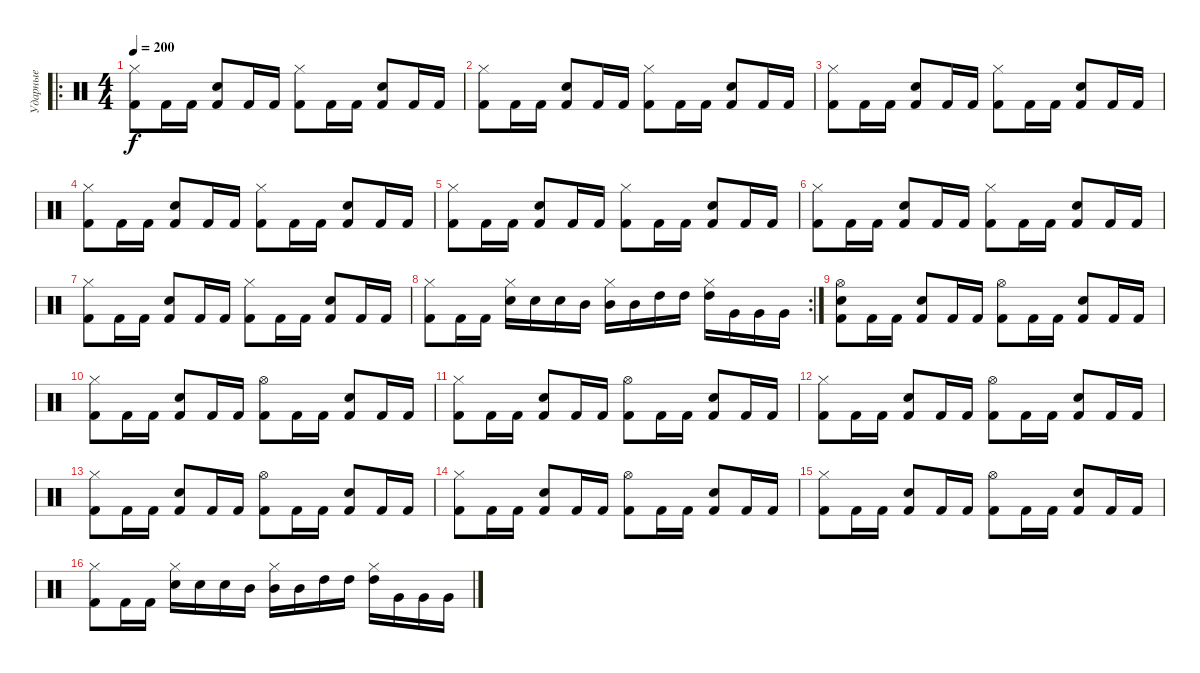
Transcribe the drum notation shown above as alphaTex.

\track ("Ударные" "Ударные") {instrument percussion}
\staff {score}
\articulation defaults
\ro
\ts (4 4)
\tempo 200
\clef neutral
\ks c
("Kick (hit) 2" "Hi-Hat (closed)").8{dy f} "Kick (hit) 2".16 "Kick (hit) 2".16 ("Kick (hit) 2" "Snare (hit) 2").8 "Kick (hit) 2".16 "Kick (hit) 2".16 ("Kick (hit) 2" "Hi-Hat (closed)").8 "Kick (hit) 2".16 "Kick (hit) 2".16 ("Kick (hit) 2" "Snare (hit) 2").8 "Kick (hit) 2".16 "Kick (hit) 2".16 |
("Kick (hit) 2" "Hi-Hat (closed)").8 "Kick (hit) 2".16 "Kick (hit) 2".16 ("Kick (hit) 2" "Snare (hit) 2").8 "Kick (hit) 2".16 "Kick (hit) 2".16 ("Kick (hit) 2" "Hi-Hat (closed)").8 "Kick (hit) 2".16 "Kick (hit) 2".16 ("Kick (hit) 2" "Snare (hit) 2").8 "Kick (hit) 2".16 "Kick (hit) 2".16 |
("Kick (hit) 2" "Hi-Hat (closed)").8 "Kick (hit) 2".16 "Kick (hit) 2".16 ("Kick (hit) 2" "Snare (hit) 2").8 "Kick (hit) 2".16 "Kick (hit) 2".16 ("Kick (hit) 2" "Hi-Hat (closed)").8 "Kick (hit) 2".16 "Kick (hit) 2".16 ("Kick (hit) 2" "Snare (hit) 2").8 "Kick (hit) 2".16 "Kick (hit) 2".16 |
("Kick (hit) 2" "Hi-Hat (closed)").8 "Kick (hit) 2".16 "Kick (hit) 2".16 ("Kick (hit) 2" "Snare (hit) 2").8 "Kick (hit) 2".16 "Kick (hit) 2".16 ("Kick (hit) 2" "Hi-Hat (closed)").8 "Kick (hit) 2".16 "Kick (hit) 2".16 ("Kick (hit) 2" "Snare (hit) 2").8 "Kick (hit) 2".16 "Kick (hit) 2".16 |
("Kick (hit) 2" "Hi-Hat (closed)").8 "Kick (hit) 2".16 "Kick (hit) 2".16 ("Kick (hit) 2" "Snare (hit) 2").8 "Kick (hit) 2".16 "Kick (hit) 2".16 ("Kick (hit) 2" "Hi-Hat (closed)").8 "Kick (hit) 2".16 "Kick (hit) 2".16 ("Kick (hit) 2" "Snare (hit) 2").8 "Kick (hit) 2".16 "Kick (hit) 2".16 |
("Kick (hit) 2" "Hi-Hat (closed)").8 "Kick (hit) 2".16 "Kick (hit) 2".16 ("Kick (hit) 2" "Snare (hit) 2").8 "Kick (hit) 2".16 "Kick (hit) 2".16 ("Kick (hit) 2" "Hi-Hat (closed)").8 "Kick (hit) 2".16 "Kick (hit) 2".16 ("Kick (hit) 2" "Snare (hit) 2").8 "Kick (hit) 2".16 "Kick (hit) 2".16 |
("Kick (hit) 2" "Hi-Hat (closed)").8 "Kick (hit) 2".16 "Kick (hit) 2".16 ("Kick (hit) 2" "Snare (hit) 2").8 "Kick (hit) 2".16 "Kick (hit) 2".16 ("Kick (hit) 2" "Hi-Hat (closed)").8 "Kick (hit) 2".16 "Kick (hit) 2".16 ("Kick (hit) 2" "Snare (hit) 2").8 "Kick (hit) 2".16 "Kick (hit) 2".16 |
\rc 2
("Kick (hit) 2" "Hi-Hat (closed)").8 "Kick (hit) 2".16 "Kick (hit) 2".16 ("Electric Snare (hit)" "Hi-Hat (closed)").16 "Electric Snare (hit)".16 "Electric Snare (hit)".16 "Mid Tom (hit)".16 ("Mid Tom (hit)" "Hi-Hat (closed)").16 "Mid Tom (hit)".16 "High Tom (hit)".16 "High Tom (hit)".16 ("High Tom (hit)" "Hi-Hat (closed)").16 "Very Low Tom (hit)".16 "Very Low Tom (hit)".16 "Very Low Tom (hit)".16 |
("Kick (hit) 2" "Hi-Hat (open)" "Snare (hit) 2").8 "Kick (hit) 2".16 "Kick (hit) 2".16 ("Kick (hit) 2" "Snare (hit) 2").8 "Kick (hit) 2".16 "Kick (hit) 2".16 ("Kick (hit) 2" "Hi-Hat (open)").8 "Kick (hit) 2".16 "Kick (hit) 2".16 ("Kick (hit) 2" "Snare (hit) 2").8 "Kick (hit) 2".16 "Kick (hit) 2".16 |
("Kick (hit) 2" "Hi-Hat (closed)").8 "Kick (hit) 2".16 "Kick (hit) 2".16 ("Kick (hit) 2" "Snare (hit) 2").8 "Kick (hit) 2".16 "Kick (hit) 2".16 ("Kick (hit) 2" "Hi-Hat (open)").8 "Kick (hit) 2".16 "Kick (hit) 2".16 ("Kick (hit) 2" "Snare (hit) 2").8 "Kick (hit) 2".16 "Kick (hit) 2".16 |
("Kick (hit) 2" "Hi-Hat (closed)").8 "Kick (hit) 2".16 "Kick (hit) 2".16 ("Kick (hit) 2" "Snare (hit) 2").8 "Kick (hit) 2".16 "Kick (hit) 2".16 ("Kick (hit) 2" "Hi-Hat (open)").8 "Kick (hit) 2".16 "Kick (hit) 2".16 ("Kick (hit) 2" "Snare (hit) 2").8 "Kick (hit) 2".16 "Kick (hit) 2".16 |
("Kick (hit) 2" "Hi-Hat (closed)").8 "Kick (hit) 2".16 "Kick (hit) 2".16 ("Kick (hit) 2" "Snare (hit) 2").8 "Kick (hit) 2".16 "Kick (hit) 2".16 ("Kick (hit) 2" "Hi-Hat (open)").8 "Kick (hit) 2".16 "Kick (hit) 2".16 ("Kick (hit) 2" "Snare (hit) 2").8 "Kick (hit) 2".16 "Kick (hit) 2".16 |
("Kick (hit) 2" "Hi-Hat (closed)").8 "Kick (hit) 2".16 "Kick (hit) 2".16 ("Kick (hit) 2" "Snare (hit) 2").8 "Kick (hit) 2".16 "Kick (hit) 2".16 ("Kick (hit) 2" "Hi-Hat (open)").8 "Kick (hit) 2".16 "Kick (hit) 2".16 ("Kick (hit) 2" "Snare (hit) 2").8 "Kick (hit) 2".16 "Kick (hit) 2".16 |
("Kick (hit) 2" "Hi-Hat (closed)").8 "Kick (hit) 2".16 "Kick (hit) 2".16 ("Kick (hit) 2" "Snare (hit) 2").8 "Kick (hit) 2".16 "Kick (hit) 2".16 ("Kick (hit) 2" "Hi-Hat (open)").8 "Kick (hit) 2".16 "Kick (hit) 2".16 ("Kick (hit) 2" "Snare (hit) 2").8 "Kick (hit) 2".16 "Kick (hit) 2".16 |
("Kick (hit) 2" "Hi-Hat (closed)").8 "Kick (hit) 2".16 "Kick (hit) 2".16 ("Kick (hit) 2" "Snare (hit) 2").8 "Kick (hit) 2".16 "Kick (hit) 2".16 ("Kick (hit) 2" "Hi-Hat (open)").8 "Kick (hit) 2".16 "Kick (hit) 2".16 ("Kick (hit) 2" "Snare (hit) 2").8 "Kick (hit) 2".16 "Kick (hit) 2".16 |
("Kick (hit) 2" "Hi-Hat (closed)").8 "Kick (hit) 2".16 "Kick (hit) 2".16 ("Electric Snare (hit)" "Hi-Hat (closed)").16 "Electric Snare (hit)".16 "Electric Snare (hit)".16 "Mid Tom (hit)".16 ("Mid Tom (hit)" "Hi-Hat (closed)").16 "Mid Tom (hit)".16 "High Tom (hit)".16 "High Tom (hit)".16 ("High Tom (hit)" "Hi-Hat (closed)").16 "Very Low Tom (hit)".16 "Very Low Tom (hit)".16 "Very Low Tom (hit)".16
